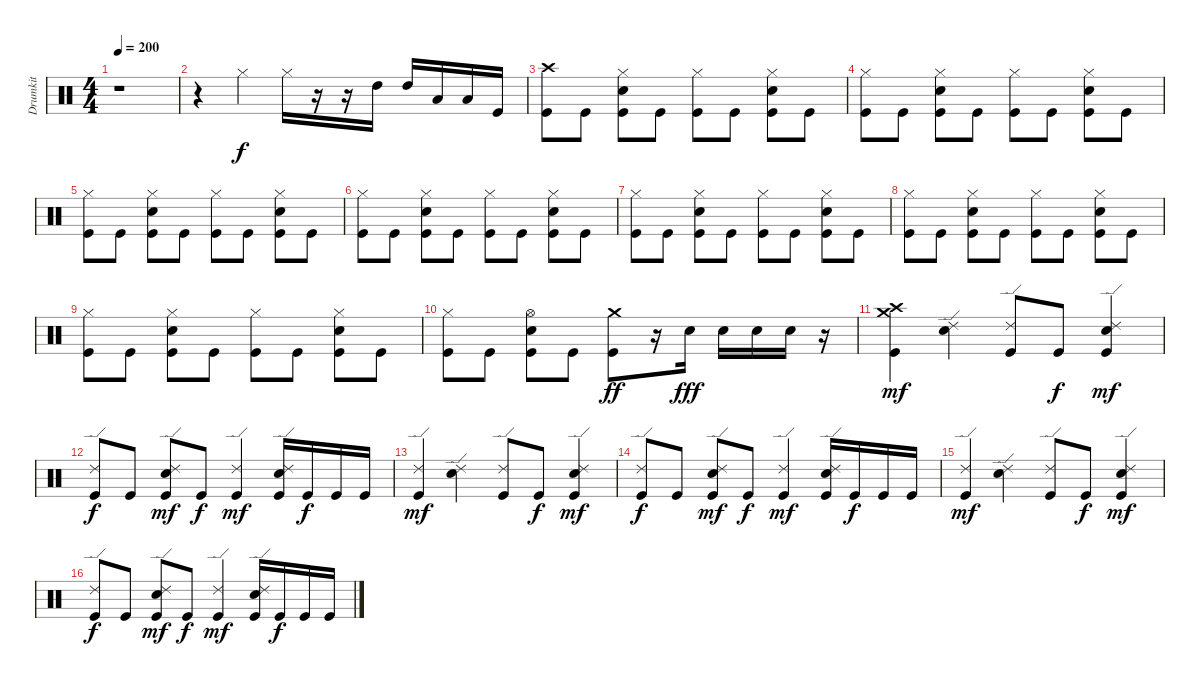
\track ("Drumkit" "Drumkit") {instrument percussion}
\staff {score}
\articulation defaults
\ts (4 4)
\tempo 200
\clef neutral
\ks c
r.1{dy fff} |
r.4 "Hi-Hat (closed)".4{dy f} "Hi-Hat (closed)".16 r.16 r.16 "High Tom (hit)".16 "High Tom (hit)".16 "Low Tom (hit)".16 "Low Tom (hit)".16 "Kick (hit)".16 |
("Crash high (hit)" "Kick (hit)").8 "Kick (hit)".8 ("Hi-Hat (closed)" "Snare (hit) 2" "Kick (hit)").8 "Kick (hit)".8 ("Hi-Hat (closed)" "Kick (hit)").8 "Kick (hit)".8 ("Hi-Hat (closed)" "Snare (hit) 2" "Kick (hit)").8 "Kick (hit)".8 |
("Hi-Hat (closed)" "Kick (hit)").8 "Kick (hit)".8 ("Hi-Hat (closed)" "Snare (hit) 2" "Kick (hit)").8 "Kick (hit)".8 ("Hi-Hat (closed)" "Kick (hit)").8 "Kick (hit)".8 ("Hi-Hat (closed)" "Snare (hit) 2" "Kick (hit)").8 "Kick (hit)".8 |
("Hi-Hat (closed)" "Kick (hit)").8 "Kick (hit)".8 ("Hi-Hat (closed)" "Snare (hit) 2" "Kick (hit)").8 "Kick (hit)".8 ("Hi-Hat (closed)" "Kick (hit)").8 "Kick (hit)".8 ("Hi-Hat (closed)" "Snare (hit) 2" "Kick (hit)").8 "Kick (hit)".8 |
("Hi-Hat (closed)" "Kick (hit)").8 "Kick (hit)".8 ("Hi-Hat (closed)" "Snare (hit) 2" "Kick (hit)").8 "Kick (hit)".8 ("Hi-Hat (closed)" "Kick (hit)").8 "Kick (hit)".8 ("Hi-Hat (closed)" "Snare (hit) 2" "Kick (hit)").8 "Kick (hit)".8 |
("Hi-Hat (closed)" "Kick (hit)").8 "Kick (hit)".8 ("Hi-Hat (closed)" "Snare (hit) 2" "Kick (hit)").8 "Kick (hit)".8 ("Hi-Hat (closed)" "Kick (hit)").8 "Kick (hit)".8 ("Hi-Hat (closed)" "Snare (hit) 2" "Kick (hit)").8 "Kick (hit)".8 |
("Hi-Hat (closed)" "Kick (hit)").8 "Kick (hit)".8 ("Hi-Hat (closed)" "Snare (hit) 2" "Kick (hit)").8 "Kick (hit)".8 ("Hi-Hat (closed)" "Kick (hit)").8 "Kick (hit)".8 ("Hi-Hat (closed)" "Snare (hit) 2" "Kick (hit)").8 "Kick (hit)".8 |
("Hi-Hat (closed)" "Kick (hit)").8 "Kick (hit)".8 ("Hi-Hat (closed)" "Snare (hit) 2" "Kick (hit)").8 "Kick (hit)".8 ("Hi-Hat (closed)" "Kick (hit)").8 "Kick (hit)".8 ("Hi-Hat (closed)" "Snare (hit) 2" "Kick (hit)").8 "Kick (hit)".8 |
("Hi-Hat (closed)" "Kick (hit)").8 "Kick (hit)".8 ("Hi-Hat (open)" "Snare (hit) 2" "Kick (hit)").8 "Kick (hit)".8 ("Crash medium (hit)" "Kick (hit)").8{dy ff} r.16 "Snare (hit) 2".16{dy fff} "Snare (hit) 2".16 "Snare (hit) 2".16 "Snare (hit) 2".16 r.16 |
("Crash high (hit)" "Crash medium (hit)" "Kick (hit)").4{dy mf} ("Ride (edge) 2" "Snare (hit) 2").4 ("Ride (edge) 2" "Kick (hit)").8 "Kick (hit)".8{dy f} ("Ride (edge) 2" "Snare (hit) 2" "Kick (hit)").4{dy mf} |
("Ride (edge) 2" "Kick (hit)").8{dy f} "Kick (hit)".8 ("Ride (edge) 2" "Snare (hit) 2" "Kick (hit)").8{dy mf} "Kick (hit)".8{dy f} ("Ride (edge) 2" "Kick (hit)").4{dy mf} ("Ride (edge) 2" "Snare (hit) 2" "Kick (hit)").16 "Kick (hit)".16{dy f} "Kick (hit)".16 "Kick (hit)".16 |
("Ride (edge) 2" "Kick (hit)").4{dy mf} ("Ride (edge) 2" "Snare (hit) 2").4 ("Ride (edge) 2" "Kick (hit)").8 "Kick (hit)".8{dy f} ("Ride (edge) 2" "Snare (hit) 2" "Kick (hit)").4{dy mf} |
("Ride (edge) 2" "Kick (hit)").8{dy f} "Kick (hit)".8 ("Ride (edge) 2" "Snare (hit) 2" "Kick (hit)").8{dy mf} "Kick (hit)".8{dy f} ("Ride (edge) 2" "Kick (hit)").4{dy mf} ("Ride (edge) 2" "Snare (hit) 2" "Kick (hit)").16 "Kick (hit)".16{dy f} "Kick (hit)".16 "Kick (hit)".16 |
("Ride (edge) 2" "Kick (hit)").4{dy mf} ("Ride (edge) 2" "Snare (hit) 2").4 ("Ride (edge) 2" "Kick (hit)").8 "Kick (hit)".8{dy f} ("Ride (edge) 2" "Snare (hit) 2" "Kick (hit)").4{dy mf} |
("Ride (edge) 2" "Kick (hit)").8{dy f} "Kick (hit)".8 ("Ride (edge) 2" "Snare (hit) 2" "Kick (hit)").8{dy mf} "Kick (hit)".8{dy f} ("Ride (edge) 2" "Kick (hit)").4{dy mf} ("Ride (edge) 2" "Snare (hit) 2" "Kick (hit)").16 "Kick (hit)".16{dy f} "Kick (hit)".16 "Kick (hit)".16
